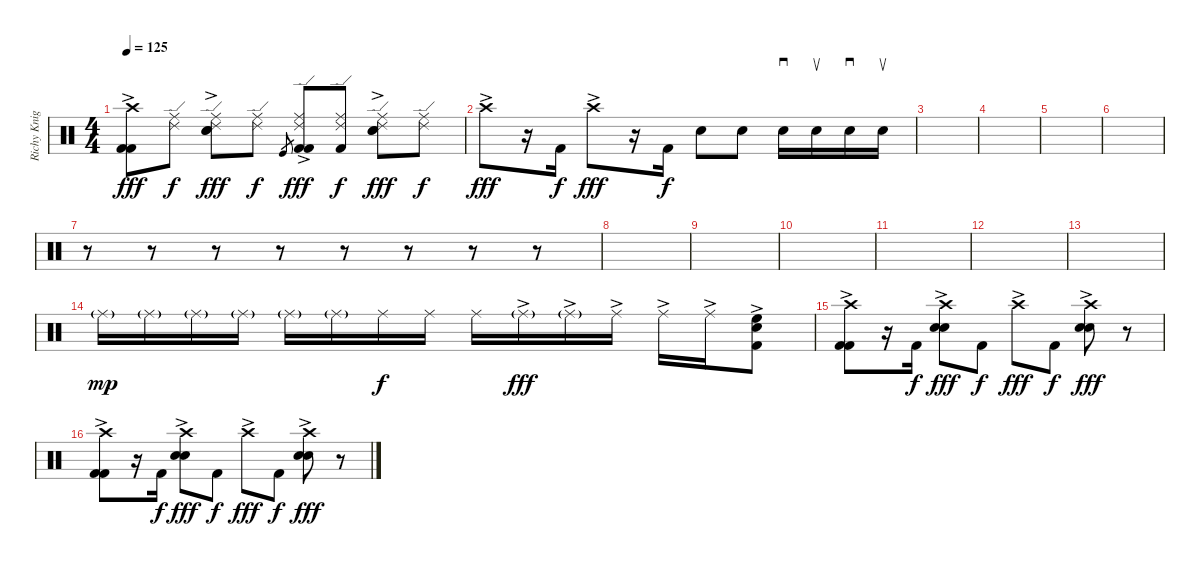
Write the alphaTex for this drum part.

\track ("Richy Knight" "Richy Knig") {instrument percussion}
\staff {score}
\articulation defaults
\ts (4 4)
\tempo 125
\clef neutral
\ks c
("Crash high (hit)"{ac} "Kick (hit) 2"{ac} "Kick (hit) 2"{ac}).8{dy fff} ("Ride (middle)" "Ride (edge) 2").8{dy f} ("Ride (middle)" "Ride (edge) 2" "Electric Snare (hit)"{ac} "Electric Snare (hit)"{ac}).8{dy fff} ("Ride (middle)" "Ride (edge) 2").8{dy f} "Kick (hit)".8{gr} ("Ride (middle)" "Ride (edge) 2" "Kick (hit) 2"{ac} "Kick (hit) 2"{ac}).8{dy fff} ("Ride (middle)" "Ride (edge) 2" "Kick (hit) 2").8{dy f} ("Ride (middle)" "Ride (edge) 2" "Electric Snare (hit)"{ac} "Electric Snare (hit)"{ac}).8{dy fff} ("Ride (middle)" "Ride (edge) 2").8{dy f} |
"Crash high (hit)"{ac}.8{dy fff} r.16 "Kick (hit) 2".16{dy f} "Crash high (hit)"{ac}.8{dy fff} r.16 "Kick (hit) 2".16{dy f} "Electric Snare (hit)".8 "Electric Snare (hit)".8 "Electric Snare (hit)".16{sd} "Electric Snare (hit)".16{su} "Electric Snare (hit)".16{sd} "Electric Snare (hit)".16{su} |
|
|
|
|
r.8 r.8 r.8 r.8 r.8 r.8 r.8 r.8 |
|
|
|
|
|
|
"Ride (middle)"{g}.16{dy mp} "Ride (middle)"{g}.16 "Ride (middle)"{g}.16 "Ride (middle)"{g}.16 "Ride (middle)"{g}.16 "Ride (middle)"{g}.16 "Ride (middle)".16{dy f} "Ride (middle)".16 "Ride (middle)".16 "Ride (middle)"{g ac}.16{dy fff} "Ride (middle)"{g ac}.16 "Ride (middle)"{ac}.16 "Ride (middle)"{ac}.16 "Ride (middle)"{ac}.16 ("High Floor Tom (hit)"{ac} "Electric Snare (hit)"{ac} "Kick (hit) 2"{ac}).8 |
("Crash high (hit)"{ac} "Kick (hit) 2"{ac} "Kick (hit) 2"{ac}).8 r.16 "Kick (hit) 2".16{dy f} ("Crash high (hit)"{ac} "Electric Snare (hit)"{ac} "Electric Snare (hit)"{ac}).8{dy fff} "Kick (hit) 2".8{dy f} "Crash high (hit)"{ac}.8{dy fff} "Kick (hit) 2".8{dy f} ("Crash high (hit)"{ac} "Electric Snare (hit)"{ac} "Electric Snare (hit)"{ac}).8{dy fff} r.8 |
("Crash high (hit)"{ac} "Kick (hit) 2"{ac} "Kick (hit) 2"{ac}).8 r.16 "Kick (hit) 2".16{dy f} ("Crash high (hit)"{ac} "Electric Snare (hit)"{ac} "Electric Snare (hit)"{ac}).8{dy fff} "Kick (hit) 2".8{dy f} "Crash high (hit)"{ac}.8{dy fff} "Kick (hit) 2".8{dy f} ("Crash high (hit)"{ac} "Electric Snare (hit)"{ac} "Electric Snare (hit)"{ac}).8{dy fff} r.8
